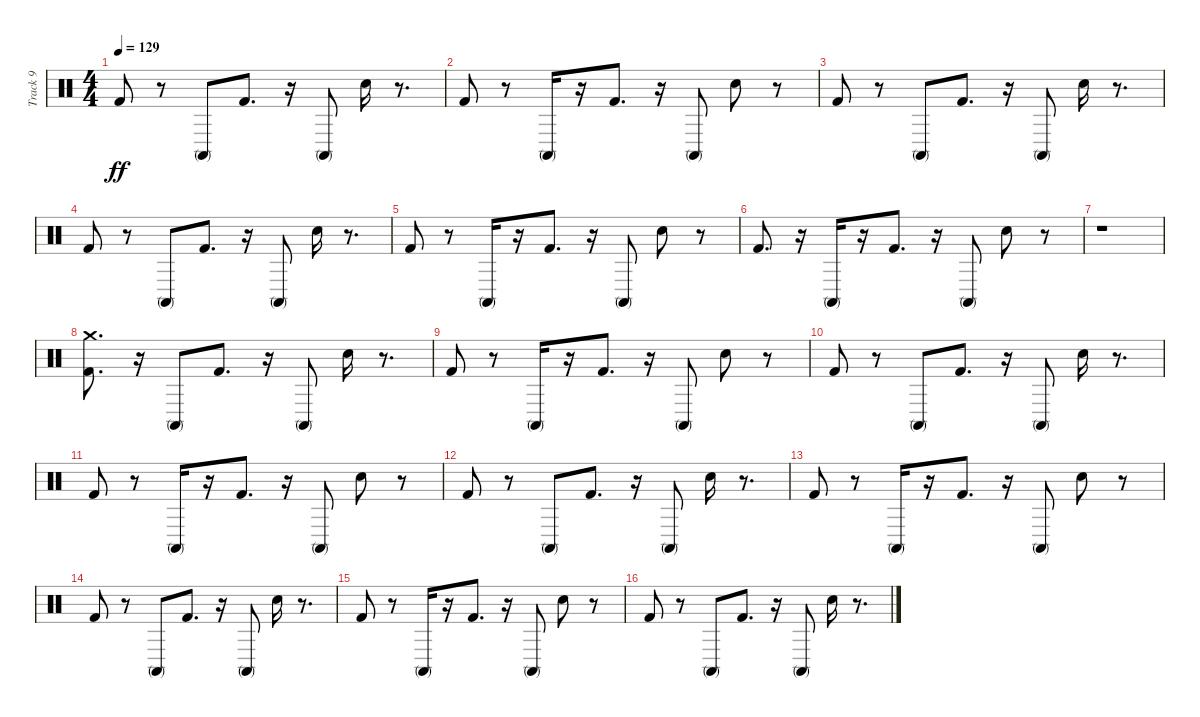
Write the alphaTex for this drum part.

\track ("Track 9" "Track 9") {instrument percussion}
\staff {score}
\articulation defaults
\ts (4 4)
\tempo 129
\clef neutral
\ks c "Kick (hit) 2".8{dy ff}
r.8 "Conga high (mute)".8 "Kick (hit) 2".8{d} r.16 "Conga high (mute)".8 "Snare (hit) 2".16 r.8{d} |
"Kick (hit) 2".8 r.8 "Conga high (mute)".16 r.16 "Kick (hit) 2".8{d} r.16 "Conga high (mute)".8 "Snare (hit) 2".8 r.8 |
"Kick (hit) 2".8 r.8 "Conga high (mute)".8 "Kick (hit) 2".8{d} r.16 "Conga high (mute)".8 "Snare (hit) 2".16 r.8{d} |
"Kick (hit) 2".8 r.8 "Conga high (mute)".8 "Kick (hit) 2".8{d} r.16 "Conga high (mute)".8 "Snare (hit) 2".16 r.8{d} |
"Kick (hit) 2".8 r.8 "Conga high (mute)".16 r.16 "Kick (hit) 2".8{d} r.16 "Conga high (mute)".8 "Snare (hit) 2".8 r.8 |
"Kick (hit) 2".8{d} r.16 "Conga high (mute)".16 r.16 "Kick (hit) 2".8{d} r.16 "Conga high (mute)".8 "Snare (hit) 2".8 r.8 |
r.1 |
("Crash medium (hit)" "Kick (hit) 2").8{d} r.16 "Conga high (mute)".8 "Kick (hit) 2".8{d} r.16 "Conga high (mute)".8 "Snare (hit) 2".16 r.8{d} |
"Kick (hit) 2".8 r.8 "Conga high (mute)".16 r.16 "Kick (hit) 2".8{d} r.16 "Conga high (mute)".8 "Snare (hit) 2".8 r.8 |
"Kick (hit) 2".8 r.8 "Conga high (mute)".8 "Kick (hit) 2".8{d} r.16 "Conga high (mute)".8 "Snare (hit) 2".16 r.8{d} |
"Kick (hit) 2".8 r.8 "Conga high (mute)".16 r.16 "Kick (hit) 2".8{d} r.16 "Conga high (mute)".8 "Snare (hit) 2".8 r.8 |
"Kick (hit) 2".8 r.8 "Conga high (mute)".8 "Kick (hit) 2".8{d} r.16 "Conga high (mute)".8 "Snare (hit) 2".16 r.8{d} |
"Kick (hit) 2".8 r.8 "Conga high (mute)".16 r.16 "Kick (hit) 2".8{d} r.16 "Conga high (mute)".8 "Snare (hit) 2".8 r.8 |
"Kick (hit) 2".8 r.8 "Conga high (mute)".8 "Kick (hit) 2".8{d} r.16 "Conga high (mute)".8 "Snare (hit) 2".16 r.8{d} |
"Kick (hit) 2".8 r.8 "Conga high (mute)".16 r.16 "Kick (hit) 2".8{d} r.16 "Conga high (mute)".8 "Snare (hit) 2".8 r.8 |
"Kick (hit) 2".8 r.8 "Conga high (mute)".8 "Kick (hit) 2".8{d} r.16 "Conga high (mute)".8 "Snare (hit) 2".16 r.8{d}
